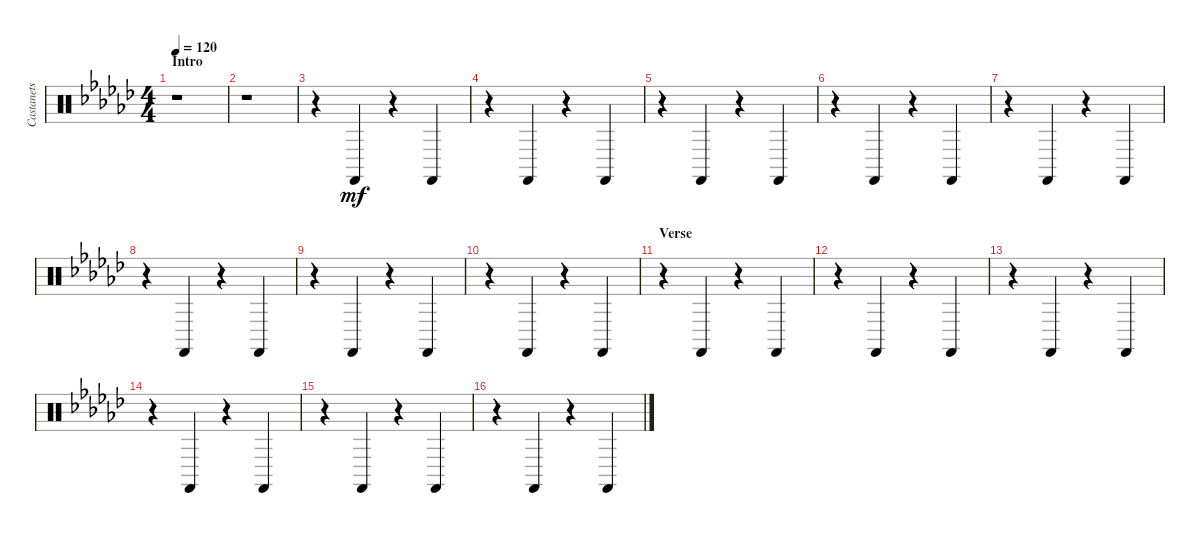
\track ("Castanets" "Castanets") {instrument percussion}
\staff {score}
\articulation defaults
\ts (4 4)
\section ("" "Intro")
\tempo 120
\clef neutral
\ks ebminor
r.1{dy mf} |
r.1 |
r.4 "Castanets (hit)".4 r.4 "Castanets (hit)".4 |
r.4 "Castanets (hit)".4 r.4 "Castanets (hit)".4 |
r.4 "Castanets (hit)".4 r.4 "Castanets (hit)".4 |
r.4 "Castanets (hit)".4 r.4 "Castanets (hit)".4 |
r.4 "Castanets (hit)".4 r.4 "Castanets (hit)".4 |
r.4 "Castanets (hit)".4 r.4 "Castanets (hit)".4 |
r.4 "Castanets (hit)".4 r.4 "Castanets (hit)".4 |
r.4 "Castanets (hit)".4 r.4 "Castanets (hit)".4 |
\section ("" "Verse")
r.4 "Castanets (hit)".4 r.4 "Castanets (hit)".4 |
r.4 "Castanets (hit)".4 r.4 "Castanets (hit)".4 |
r.4 "Castanets (hit)".4 r.4 "Castanets (hit)".4 |
r.4 "Castanets (hit)".4 r.4 "Castanets (hit)".4 |
r.4 "Castanets (hit)".4 r.4 "Castanets (hit)".4 |
r.4 "Castanets (hit)".4 r.4 "Castanets (hit)".4
